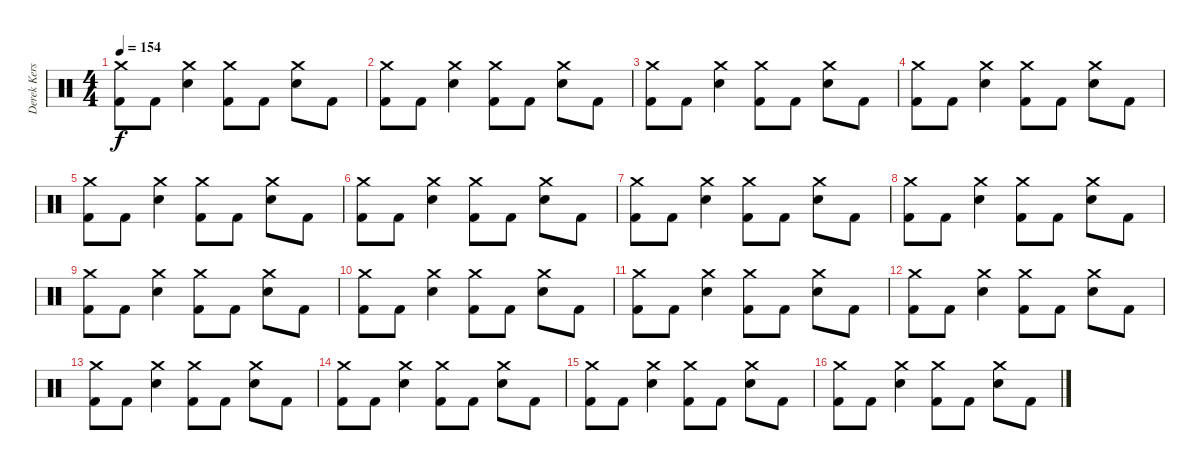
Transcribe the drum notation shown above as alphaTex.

\track ("Derek Kerswill" "Derek Kers") {instrument percussion}
\staff {score}
\articulation defaults
\ts (4 4)
\tempo 154
\clef neutral
\ks c
("Crash medium (hit)" "Kick (hit) 2").8{dy f} "Kick (hit) 2".8 ("Crash medium (hit)" "Electric Snare (hit)").4 ("Crash medium (hit)" "Kick (hit) 2").8 "Kick (hit) 2".8 ("Crash medium (hit)" "Electric Snare (hit)").8 "Kick (hit) 2".8 |
("Crash medium (hit)" "Kick (hit) 2").8 "Kick (hit) 2".8 ("Crash medium (hit)" "Electric Snare (hit)").4 ("Crash medium (hit)" "Kick (hit) 2").8 "Kick (hit) 2".8 ("Crash medium (hit)" "Electric Snare (hit)").8 "Kick (hit) 2".8 |
("Crash medium (hit)" "Kick (hit) 2").8 "Kick (hit) 2".8 ("Crash medium (hit)" "Electric Snare (hit)").4 ("Crash medium (hit)" "Kick (hit) 2").8 "Kick (hit) 2".8 ("Crash medium (hit)" "Electric Snare (hit)").8 "Kick (hit) 2".8 |
("Crash medium (hit)" "Kick (hit) 2").8 "Kick (hit) 2".8 ("Crash medium (hit)" "Electric Snare (hit)").4 ("Crash medium (hit)" "Kick (hit) 2").8 "Kick (hit) 2".8 ("Crash medium (hit)" "Electric Snare (hit)").8 "Kick (hit) 2".8 |
("Crash medium (hit)" "Kick (hit) 2").8 "Kick (hit) 2".8 ("Crash medium (hit)" "Electric Snare (hit)").4 ("Crash medium (hit)" "Kick (hit) 2").8 "Kick (hit) 2".8 ("Crash medium (hit)" "Electric Snare (hit)").8 "Kick (hit) 2".8 |
("Crash medium (hit)" "Kick (hit) 2").8 "Kick (hit) 2".8 ("Crash medium (hit)" "Electric Snare (hit)").4 ("Crash medium (hit)" "Kick (hit) 2").8 "Kick (hit) 2".8 ("Crash medium (hit)" "Electric Snare (hit)").8 "Kick (hit) 2".8 |
("Crash medium (hit)" "Kick (hit) 2").8 "Kick (hit) 2".8 ("Crash medium (hit)" "Electric Snare (hit)").4 ("Crash medium (hit)" "Kick (hit) 2").8 "Kick (hit) 2".8 ("Crash medium (hit)" "Electric Snare (hit)").8 "Kick (hit) 2".8 |
("Crash medium (hit)" "Kick (hit) 2").8 "Kick (hit) 2".8 ("Crash medium (hit)" "Electric Snare (hit)").4 ("Crash medium (hit)" "Kick (hit) 2").8 "Kick (hit) 2".8 ("Crash medium (hit)" "Electric Snare (hit)").8 "Kick (hit) 2".8 |
("Crash medium (hit)" "Kick (hit) 2").8 "Kick (hit) 2".8 ("Crash medium (hit)" "Electric Snare (hit)").4 ("Crash medium (hit)" "Kick (hit) 2").8 "Kick (hit) 2".8 ("Crash medium (hit)" "Electric Snare (hit)").8 "Kick (hit) 2".8 |
("Crash medium (hit)" "Kick (hit) 2").8 "Kick (hit) 2".8 ("Crash medium (hit)" "Electric Snare (hit)").4 ("Crash medium (hit)" "Kick (hit) 2").8 "Kick (hit) 2".8 ("Crash medium (hit)" "Electric Snare (hit)").8 "Kick (hit) 2".8 |
("Crash medium (hit)" "Kick (hit) 2").8 "Kick (hit) 2".8 ("Crash medium (hit)" "Electric Snare (hit)").4 ("Crash medium (hit)" "Kick (hit) 2").8 "Kick (hit) 2".8 ("Crash medium (hit)" "Electric Snare (hit)").8 "Kick (hit) 2".8 |
("Crash medium (hit)" "Kick (hit) 2").8 "Kick (hit) 2".8 ("Crash medium (hit)" "Electric Snare (hit)").4 ("Crash medium (hit)" "Kick (hit) 2").8 "Kick (hit) 2".8 ("Crash medium (hit)" "Electric Snare (hit)").8 "Kick (hit) 2".8 |
("Crash medium (hit)" "Kick (hit) 2").8 "Kick (hit) 2".8 ("Crash medium (hit)" "Electric Snare (hit)").4 ("Crash medium (hit)" "Kick (hit) 2").8 "Kick (hit) 2".8 ("Crash medium (hit)" "Electric Snare (hit)").8 "Kick (hit) 2".8 |
("Crash medium (hit)" "Kick (hit) 2").8 "Kick (hit) 2".8 ("Crash medium (hit)" "Electric Snare (hit)").4 ("Crash medium (hit)" "Kick (hit) 2").8 "Kick (hit) 2".8 ("Crash medium (hit)" "Electric Snare (hit)").8 "Kick (hit) 2".8 |
("Crash medium (hit)" "Kick (hit) 2").8 "Kick (hit) 2".8 ("Crash medium (hit)" "Electric Snare (hit)").4 ("Crash medium (hit)" "Kick (hit) 2").8 "Kick (hit) 2".8 ("Crash medium (hit)" "Electric Snare (hit)").8 "Kick (hit) 2".8 |
("Crash medium (hit)" "Kick (hit) 2").8 "Kick (hit) 2".8 ("Crash medium (hit)" "Electric Snare (hit)").4 ("Crash medium (hit)" "Kick (hit) 2").8 "Kick (hit) 2".8 ("Crash medium (hit)" "Electric Snare (hit)").8 "Kick (hit) 2".8
